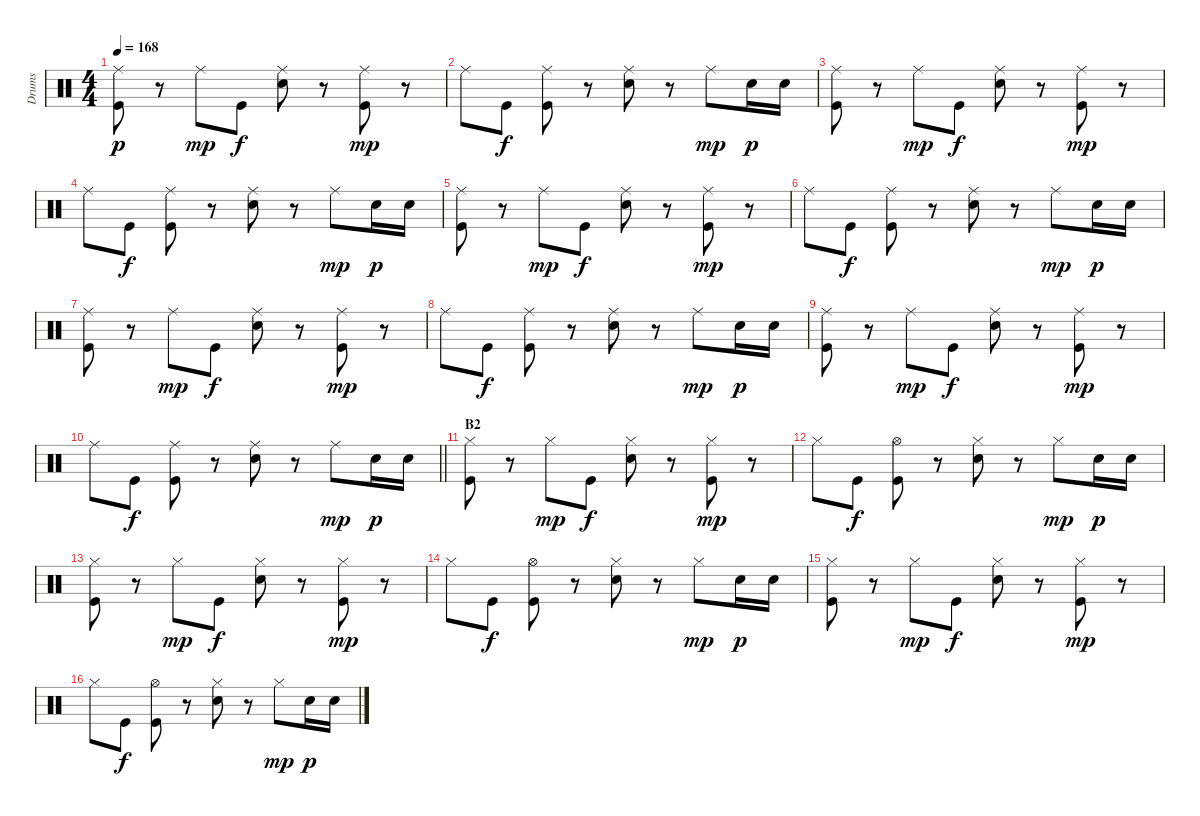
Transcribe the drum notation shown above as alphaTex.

\track ("Drums" "Drums") {instrument percussion}
\staff {score}
\articulation defaults
\ts (4 4)
\tempo 168
\clef neutral
\ks c
("Ride (middle)" "Kick (hit)").8{dy p} r.8 "Ride (middle)".8{dy mp} "Kick (hit)".8{dy f} ("Ride (middle)" "Electric Snare (hit)").8 r.8 ("Ride (middle)" "Kick (hit)").8{dy mp} r.8 |
"Ride (middle)".8 "Kick (hit)".8{dy f} ("Ride (middle)" "Kick (hit)").8 r.8 ("Ride (middle)" "Electric Snare (hit)").8 r.8 "Ride (middle)".8{dy mp} "Electric Snare (hit)".16{dy p} "Electric Snare (hit)".16 |
("Ride (middle)" "Kick (hit)").8 r.8 "Ride (middle)".8{dy mp} "Kick (hit)".8{dy f} ("Ride (middle)" "Electric Snare (hit)").8 r.8 ("Ride (middle)" "Kick (hit)").8{dy mp} r.8 |
"Ride (middle)".8 "Kick (hit)".8{dy f} ("Ride (middle)" "Kick (hit)").8 r.8 ("Ride (middle)" "Electric Snare (hit)").8 r.8 "Ride (middle)".8{dy mp} "Electric Snare (hit)".16{dy p} "Electric Snare (hit)".16 |
("Ride (middle)" "Kick (hit)").8 r.8 "Ride (middle)".8{dy mp} "Kick (hit)".8{dy f} ("Ride (middle)" "Electric Snare (hit)").8 r.8 ("Ride (middle)" "Kick (hit)").8{dy mp} r.8 |
"Ride (middle)".8 "Kick (hit)".8{dy f} ("Ride (middle)" "Kick (hit)").8 r.8 ("Ride (middle)" "Electric Snare (hit)").8 r.8 "Ride (middle)".8{dy mp} "Electric Snare (hit)".16{dy p} "Electric Snare (hit)".16 |
("Ride (middle)" "Kick (hit)").8 r.8 "Ride (middle)".8{dy mp} "Kick (hit)".8{dy f} ("Ride (middle)" "Electric Snare (hit)").8 r.8 ("Ride (middle)" "Kick (hit)").8{dy mp} r.8 |
"Ride (middle)".8 "Kick (hit)".8{dy f} ("Ride (middle)" "Kick (hit)").8 r.8 ("Ride (middle)" "Electric Snare (hit)").8 r.8 "Ride (middle)".8{dy mp} "Electric Snare (hit)".16{dy p} "Electric Snare (hit)".16 |
("Ride (middle)" "Kick (hit)").8 r.8 "Ride (middle)".8{dy mp} "Kick (hit)".8{dy f} ("Ride (middle)" "Electric Snare (hit)").8 r.8 ("Ride (middle)" "Kick (hit)").8{dy mp} r.8 |
\barLineRight lightlight "Ride (middle)".8 "Kick (hit)".8{dy f}
("Ride (middle)" "Kick (hit)").8 r.8 ("Ride (middle)" "Electric Snare (hit)").8 r.8 "Ride (middle)".8{dy mp} "Electric Snare (hit)".16{dy p} "Electric Snare (hit)".16 |
\section ("" "B2")
("Hi-Hat (closed)" "Kick (hit)").8 r.8 "Hi-Hat (closed)".8{dy mp} "Kick (hit)".8{dy f} ("Hi-Hat (closed)" "Electric Snare (hit)").8 r.8 ("Hi-Hat (closed)" "Kick (hit)").8{dy mp} r.8 |
"Hi-Hat (closed)".8 "Kick (hit)".8{dy f} ("Hi-Hat (open)" "Kick (hit)").8 r.8 ("Hi-Hat (closed)" "Electric Snare (hit)").8 r.8 "Hi-Hat (closed)".8{dy mp} "Electric Snare (hit)".16{dy p} "Electric Snare (hit)".16 |
("Hi-Hat (closed)" "Kick (hit)").8 r.8 "Hi-Hat (closed)".8{dy mp} "Kick (hit)".8{dy f} ("Hi-Hat (closed)" "Electric Snare (hit)").8 r.8 ("Hi-Hat (closed)" "Kick (hit)").8{dy mp} r.8 |
"Hi-Hat (closed)".8 "Kick (hit)".8{dy f} ("Hi-Hat (open)" "Kick (hit)").8 r.8 ("Hi-Hat (closed)" "Electric Snare (hit)").8 r.8 "Hi-Hat (closed)".8{dy mp} "Electric Snare (hit)".16{dy p} "Electric Snare (hit)".16 |
("Hi-Hat (closed)" "Kick (hit)").8 r.8 "Hi-Hat (closed)".8{dy mp} "Kick (hit)".8{dy f} ("Hi-Hat (closed)" "Electric Snare (hit)").8 r.8 ("Hi-Hat (closed)" "Kick (hit)").8{dy mp} r.8 |
"Hi-Hat (closed)".8 "Kick (hit)".8{dy f} ("Hi-Hat (open)" "Kick (hit)").8 r.8 ("Hi-Hat (closed)" "Electric Snare (hit)").8 r.8 "Hi-Hat (closed)".8{dy mp} "Electric Snare (hit)".16{dy p} "Electric Snare (hit)".16
